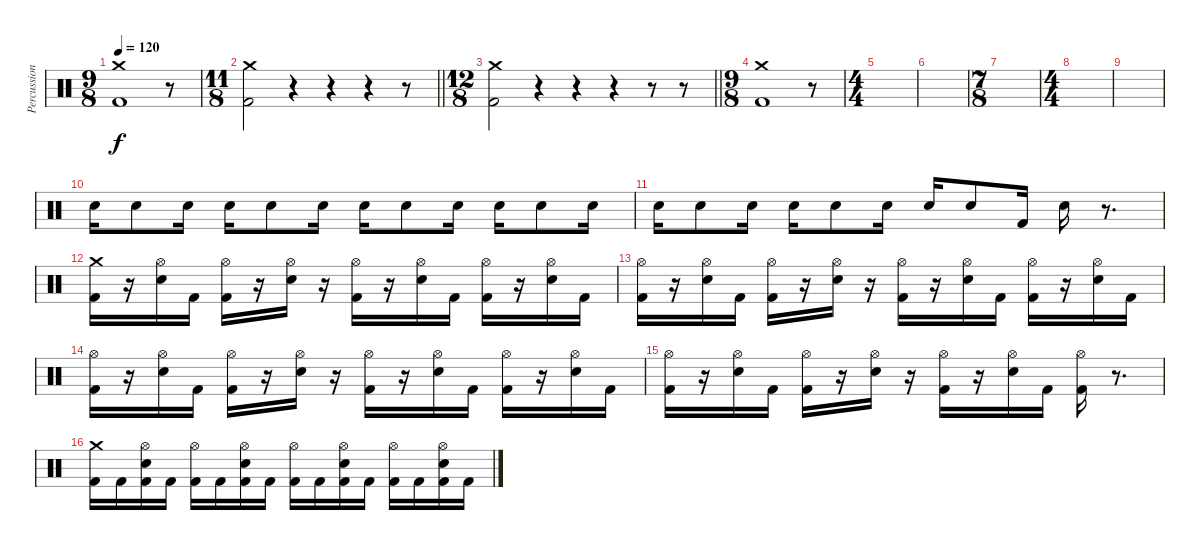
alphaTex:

\track ("Percussion" "Percussion") {instrument percussion}
\staff {score}
\articulation defaults
\ts (9 8)
\tempo 120
\clef neutral
\ks c
("Crash medium (hit)" "Kick (hit) 2").1{dy f} r.8 |
\ts (11 8)
\barLineRight lightlight
("Crash medium (hit)" "Kick (hit) 2").2 r.4 r.4 r.4 r.8 |
\ts (12 8)
\barLineRight lightlight
("Crash medium (hit)" "Kick (hit) 2").2 r.4 r.4 r.4 r.8 r.8 |
\ts (9 8)
("Crash medium (hit)" "Kick (hit) 2").1 r.8 |
\ts (4 4)
|
|
\ts (7 8)
|
\ts (4 4)
|
|
"Electric Snare (hit)".16 "Electric Snare (hit)".8 "Electric Snare (hit)".16 "Electric Snare (hit)".16 "Electric Snare (hit)".8 "Electric Snare (hit)".16 "Electric Snare (hit)".16 "Electric Snare (hit)".8 "Electric Snare (hit)".16 "Electric Snare (hit)".16 "Electric Snare (hit)".8 "Electric Snare (hit)".16 |
"Electric Snare (hit)".16 "Electric Snare (hit)".8 "Electric Snare (hit)".16 "Electric Snare (hit)".16 "Electric Snare (hit)".8 "Electric Snare (hit)".16 "Electric Snare (hit)".16 "Electric Snare (hit)".8 "Kick (hit) 2".16 "Electric Snare (hit)".16 r.8{d} |
("Crash medium (hit)" "Kick (hit) 2").16 r.16 ("Hi-Hat (open)" "Electric Snare (hit)").16 "Kick (hit) 2".16 ("Hi-Hat (open)" "Kick (hit) 2").16 r.16 ("Hi-Hat (open)" "Electric Snare (hit)").16 r.16 ("Hi-Hat (open)" "Kick (hit) 2").16 r.16 ("Hi-Hat (open)" "Electric Snare (hit)").16 "Kick (hit) 2".16 ("Hi-Hat (open)" "Kick (hit) 2").16 r.16 ("Hi-Hat (open)" "Electric Snare (hit)").16 "Kick (hit) 2".16 |
("Hi-Hat (open)" "Kick (hit) 2").16 r.16 ("Hi-Hat (open)" "Electric Snare (hit)").16 "Kick (hit) 2".16 ("Hi-Hat (open)" "Kick (hit) 2").16 r.16 ("Hi-Hat (open)" "Electric Snare (hit)").16 r.16 ("Hi-Hat (open)" "Kick (hit) 2").16 r.16 ("Hi-Hat (open)" "Electric Snare (hit)").16 "Kick (hit) 2".16 ("Hi-Hat (open)" "Kick (hit) 2").16 r.16 ("Hi-Hat (open)" "Electric Snare (hit)").16 "Kick (hit) 2".16 |
("Hi-Hat (open)" "Kick (hit) 2").16 r.16 ("Hi-Hat (open)" "Electric Snare (hit)").16 "Kick (hit) 2".16 ("Hi-Hat (open)" "Kick (hit) 2").16 r.16 ("Hi-Hat (open)" "Electric Snare (hit)").16 r.16 ("Hi-Hat (open)" "Kick (hit) 2").16 r.16 ("Hi-Hat (open)" "Electric Snare (hit)").16 "Kick (hit) 2".16 ("Hi-Hat (open)" "Kick (hit) 2").16 r.16 ("Hi-Hat (open)" "Electric Snare (hit)").16 "Kick (hit) 2".16 |
("Hi-Hat (open)" "Kick (hit) 2").16 r.16 ("Hi-Hat (open)" "Electric Snare (hit)").16 "Kick (hit) 2".16 ("Hi-Hat (open)" "Kick (hit) 2").16 r.16 ("Hi-Hat (open)" "Electric Snare (hit)").16 r.16 ("Hi-Hat (open)" "Kick (hit) 2").16 r.16 ("Hi-Hat (open)" "Electric Snare (hit)").16 "Kick (hit) 2".16 ("Hi-Hat (open)" "Kick (hit) 2").16 r.8{d} |
("Crash medium (hit)" "Kick (hit) 2").16 "Kick (hit) 2".16 ("Hi-Hat (open)" "Electric Snare (hit)" "Kick (hit) 2").16 "Kick (hit) 2".16 ("Hi-Hat (open)" "Kick (hit) 2").16 "Kick (hit) 2".16 ("Hi-Hat (open)" "Electric Snare (hit)" "Kick (hit) 2").16 "Kick (hit) 2".16 ("Hi-Hat (open)" "Kick (hit) 2").16 "Kick (hit) 2".16 ("Hi-Hat (open)" "Electric Snare (hit)" "Kick (hit) 2").16 "Kick (hit) 2".16 ("Hi-Hat (open)" "Kick (hit) 2").16 "Kick (hit) 2".16 ("Hi-Hat (open)" "Electric Snare (hit)" "Kick (hit) 2").16 "Kick (hit) 2".16
